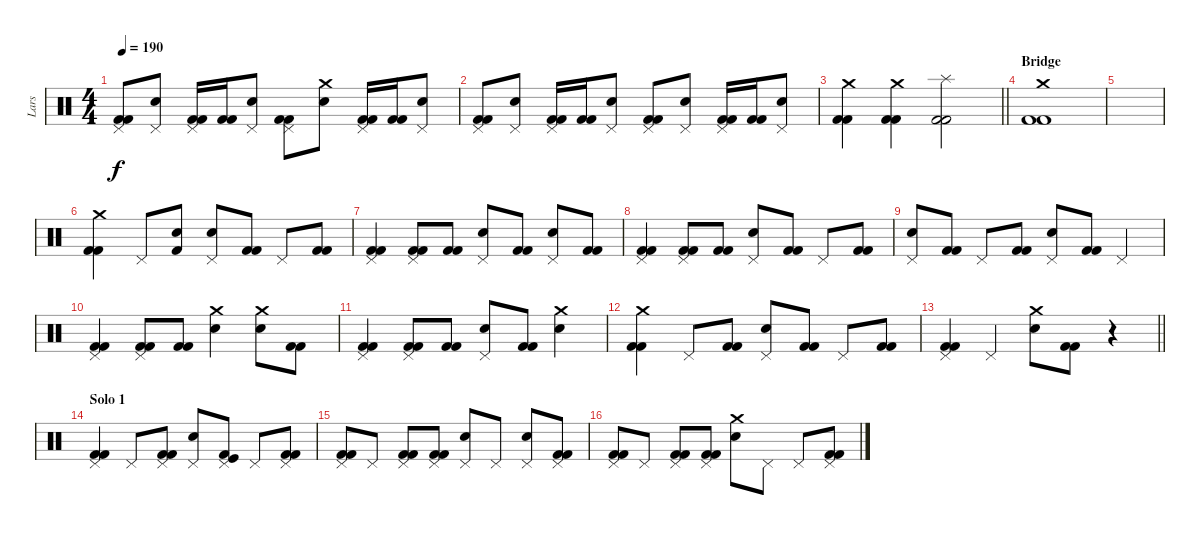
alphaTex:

\track ("Lars" "Lars") {instrument percussion}
\staff {score}
\articulation defaults
\ts (4 4)
\tempo 190
\clef neutral
\ks c
("Pedal Hi-Hat (hit)" "Kick (hit) 2" "Kick (hit) 2").8{dy f} ("Pedal Hi-Hat (hit)" "Electric Snare (hit)").8 ("Pedal Hi-Hat (hit)" "Kick (hit) 2" "Kick (hit) 2").16 ("Kick (hit) 2" "Kick (hit) 2").16 ("Pedal Hi-Hat (hit)" "Electric Snare (hit)").8 ("Pedal Hi-Hat (hit)" "Kick (hit) 2" "Kick (hit) 2").8 ("Crash medium (hit)" "Electric Snare (hit)").8 ("Pedal Hi-Hat (hit)" "Kick (hit) 2" "Kick (hit) 2").16 ("Kick (hit) 2" "Kick (hit) 2").16 ("Pedal Hi-Hat (hit)" "Electric Snare (hit)").8 |
("Pedal Hi-Hat (hit)" "Kick (hit) 2" "Kick (hit) 2").8 ("Pedal Hi-Hat (hit)" "Electric Snare (hit)").8 ("Pedal Hi-Hat (hit)" "Kick (hit) 2" "Kick (hit) 2").16 ("Kick (hit) 2" "Kick (hit) 2").16 ("Pedal Hi-Hat (hit)" "Electric Snare (hit)").8 ("Pedal Hi-Hat (hit)" "Kick (hit) 2" "Kick (hit) 2").8 ("Pedal Hi-Hat (hit)" "Electric Snare (hit)").8 ("Pedal Hi-Hat (hit)" "Kick (hit) 2" "Kick (hit) 2").16 ("Kick (hit) 2" "Kick (hit) 2").16 ("Pedal Hi-Hat (hit)" "Electric Snare (hit)").8 |
\barLineRight lightlight
("Crash medium (hit)" "Kick (hit) 2" "Kick (hit) 2").4 ("Crash medium (hit)" "Kick (hit) 2" "Kick (hit) 2").4 ("Splash (hit)" "Kick (hit) 2" "Kick (hit) 2").2 |
\section ("" "Bridge")
("Crash medium (hit)" "Kick (hit) 2" "Kick (hit) 2").1 |
|
("Crash medium (hit)" "Kick (hit) 2" "Kick (hit) 2").4 "Pedal Hi-Hat (hit)".8 ("Snare (hit)" "Kick (hit) 2").8 ("Pedal Hi-Hat (hit)" "Electric Snare (hit)").8 ("Kick (hit) 2" "Kick (hit) 2").8 "Pedal Hi-Hat (hit)".8 ("Kick (hit) 2" "Kick (hit) 2").8 |
("Pedal Hi-Hat (hit)" "Kick (hit) 2" "Kick (hit) 2").4 ("Pedal Hi-Hat (hit)" "Kick (hit) 2" "Kick (hit) 2").8 ("Kick (hit) 2" "Kick (hit) 2").8 ("Pedal Hi-Hat (hit)" "Electric Snare (hit)").8 ("Kick (hit) 2" "Kick (hit) 2").8 ("Pedal Hi-Hat (hit)" "Electric Snare (hit)").8 ("Kick (hit) 2" "Kick (hit) 2").8 |
("Pedal Hi-Hat (hit)" "Kick (hit) 2" "Kick (hit) 2").4 ("Pedal Hi-Hat (hit)" "Kick (hit) 2" "Kick (hit) 2").8 ("Kick (hit) 2" "Kick (hit) 2").8 ("Pedal Hi-Hat (hit)" "Electric Snare (hit)").8 ("Kick (hit) 2" "Kick (hit) 2").8 "Pedal Hi-Hat (hit)".8 ("Kick (hit) 2" "Kick (hit) 2").8 |
("Pedal Hi-Hat (hit)" "Electric Snare (hit)").8 ("Kick (hit) 2" "Kick (hit) 2").8 "Pedal Hi-Hat (hit)".8 ("Kick (hit) 2" "Kick (hit) 2").8 ("Pedal Hi-Hat (hit)" "Electric Snare (hit)").8 ("Kick (hit) 2" "Kick (hit) 2").8 "Pedal Hi-Hat (hit)".4 |
("Pedal Hi-Hat (hit)" "Kick (hit) 2" "Kick (hit) 2").4 ("Pedal Hi-Hat (hit)" "Kick (hit) 2" "Kick (hit) 2").8 ("Kick (hit) 2" "Kick (hit) 2").8 ("Crash medium (hit)" "Electric Snare (hit)").4 ("Crash medium (hit)" "Electric Snare (hit)").8 ("Kick (hit) 2" "Kick (hit) 2").8 |
("Pedal Hi-Hat (hit)" "Kick (hit) 2" "Kick (hit) 2").4 ("Pedal Hi-Hat (hit)" "Kick (hit) 2" "Kick (hit) 2").8 ("Kick (hit) 2" "Kick (hit) 2").8 ("Pedal Hi-Hat (hit)" "Electric Snare (hit)").8 ("Kick (hit) 2" "Kick (hit) 2").8 ("Crash medium (hit)" "Electric Snare (hit)").4 |
("Crash medium (hit)" "Kick (hit) 2" "Kick (hit) 2").4 "Pedal Hi-Hat (hit)".8 ("Kick (hit) 2" "Kick (hit) 2").8 ("Pedal Hi-Hat (hit)" "Electric Snare (hit)").8 ("Kick (hit) 2" "Kick (hit) 2").8 "Pedal Hi-Hat (hit)".8 ("Kick (hit) 2" "Kick (hit) 2").8 |
\barLineRight lightlight
("Pedal Hi-Hat (hit)" "Kick (hit) 2" "Kick (hit) 2").4 "Pedal Hi-Hat (hit)".4 ("Crash medium (hit)" "Electric Snare (hit)").8 ("Kick (hit) 2" "Kick (hit) 2").8 r.4 |
\section ("" "Solo 1")
("Pedal Hi-Hat (hit)" "Kick (hit) 2" "Kick (hit) 2").4 "Pedal Hi-Hat (hit)".8 ("Pedal Hi-Hat (hit)" "Kick (hit) 2" "Kick (hit) 2").8 ("Pedal Hi-Hat (hit)" "Electric Snare (hit)").8 ("Pedal Hi-Hat (hit)" "Kick (hit)" "Kick (hit) 2").8 "Pedal Hi-Hat (hit)".8 ("Pedal Hi-Hat (hit)" "Kick (hit) 2" "Kick (hit) 2").8 |
("Pedal Hi-Hat (hit)" "Kick (hit) 2" "Kick (hit) 2").8 "Pedal Hi-Hat (hit)".8 ("Pedal Hi-Hat (hit)" "Kick (hit) 2" "Kick (hit) 2").8 ("Pedal Hi-Hat (hit)" "Kick (hit) 2" "Kick (hit) 2").8 ("Pedal Hi-Hat (hit)" "Electric Snare (hit)").8 "Pedal Hi-Hat (hit)".8 ("Pedal Hi-Hat (hit)" "Electric Snare (hit)").8 ("Pedal Hi-Hat (hit)" "Kick (hit) 2" "Kick (hit) 2").8 |
("Pedal Hi-Hat (hit)" "Kick (hit) 2" "Kick (hit) 2").8 "Pedal Hi-Hat (hit)".8 ("Pedal Hi-Hat (hit)" "Kick (hit) 2" "Kick (hit) 2").8 ("Pedal Hi-Hat (hit)" "Kick (hit) 2" "Kick (hit) 2").8 ("Crash medium (hit)" "Electric Snare (hit)").8 "Pedal Hi-Hat (hit)".8 "Pedal Hi-Hat (hit)".8 ("Pedal Hi-Hat (hit)" "Kick (hit) 2" "Kick (hit) 2").8
